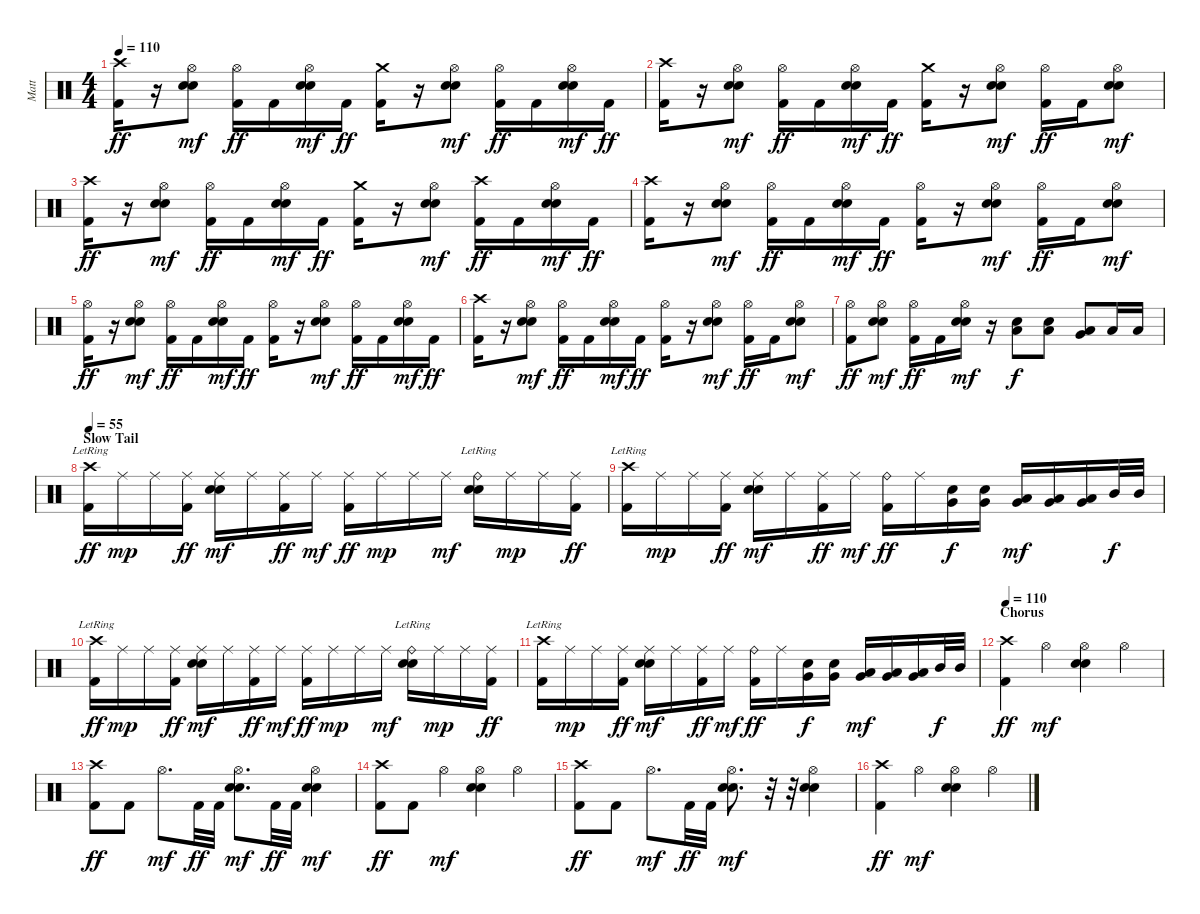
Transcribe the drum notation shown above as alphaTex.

\track ("Matt" "Matt") {instrument percussion}
\staff {score}
\articulation defaults
\ts (4 4)
\tempo 110
\clef neutral
\ks c
("Crash high (hit)" "Kick (hit) 2").16{dy ff} r.16 ("Hi-Hat (open)" "Electric Snare (hit)" "Snare (hit) 2").8{dy mf} ("Hi-Hat (open)" "Kick (hit) 2").16{dy ff} "Kick (hit) 2".16 ("Hi-Hat (open)" "Electric Snare (hit)" "Snare (hit) 2").16{dy mf} "Kick (hit) 2".16{dy ff} ("Crash medium (hit)" "Kick (hit) 2").16 r.16 ("Hi-Hat (open)" "Electric Snare (hit)" "Snare (hit) 2").8{dy mf} ("Hi-Hat (open)" "Kick (hit) 2").16{dy ff} "Kick (hit) 2".16 ("Hi-Hat (open)" "Electric Snare (hit)" "Snare (hit) 2").16{dy mf} "Kick (hit) 2".16{dy ff} |
("Crash high (hit)" "Kick (hit) 2").16 r.16 ("Hi-Hat (open)" "Electric Snare (hit)" "Snare (hit) 2").8{dy mf} ("Hi-Hat (open)" "Kick (hit) 2").16{dy ff} "Kick (hit) 2".16 ("Hi-Hat (open)" "Electric Snare (hit)" "Snare (hit) 2").16{dy mf} "Kick (hit) 2".16{dy ff} ("Crash medium (hit)" "Kick (hit) 2").16 r.16 ("Hi-Hat (open)" "Electric Snare (hit)" "Snare (hit) 2").8{dy mf} ("Hi-Hat (open)" "Kick (hit) 2").16{dy ff} "Kick (hit) 2".16 ("Hi-Hat (open)" "Electric Snare (hit)" "Snare (hit) 2").8{dy mf} |
("Crash high (hit)" "Kick (hit) 2").16{dy ff} r.16 ("Hi-Hat (open)" "Electric Snare (hit)" "Snare (hit) 2").8{dy mf} ("Hi-Hat (open)" "Kick (hit) 2").16{dy ff} "Kick (hit) 2".16 ("Hi-Hat (open)" "Electric Snare (hit)" "Snare (hit) 2").16{dy mf} "Kick (hit) 2".16{dy ff} ("Crash medium (hit)" "Kick (hit) 2").16 r.16 ("Hi-Hat (open)" "Electric Snare (hit)" "Snare (hit) 2").8{dy mf} ("Crash high (hit)" "Kick (hit) 2").16{dy ff} "Kick (hit) 2".16 ("Hi-Hat (open)" "Electric Snare (hit)" "Snare (hit) 2").16{dy mf} "Kick (hit) 2".16{dy ff} |
("Crash high (hit)" "Kick (hit) 2").16 r.16 ("Hi-Hat (open)" "Electric Snare (hit)" "Snare (hit) 2").8{dy mf} ("Hi-Hat (open)" "Kick (hit) 2").16{dy ff} "Kick (hit) 2".16 ("Hi-Hat (open)" "Electric Snare (hit)" "Snare (hit) 2").16{dy mf} "Kick (hit) 2".16{dy ff} ("Hi-Hat (open)" "Kick (hit) 2").16 r.16 ("Hi-Hat (open)" "Electric Snare (hit)" "Snare (hit) 2").8{dy mf} ("Hi-Hat (open)" "Kick (hit) 2").16{dy ff} "Kick (hit) 2".16 ("Hi-Hat (open)" "Electric Snare (hit)" "Snare (hit) 2").8{dy mf} |
("Hi-Hat (open)" "Kick (hit) 2").16{dy ff} r.16 ("Hi-Hat (open)" "Electric Snare (hit)" "Snare (hit) 2").8{dy mf} ("Hi-Hat (open)" "Kick (hit) 2").16{dy ff} "Kick (hit) 2".16 ("Hi-Hat (open)" "Electric Snare (hit)" "Snare (hit) 2").16{dy mf} "Kick (hit) 2".16{dy ff} ("Hi-Hat (open)" "Kick (hit) 2").16 r.16 ("Hi-Hat (open)" "Electric Snare (hit)" "Snare (hit) 2").8{dy mf} ("Hi-Hat (open)" "Kick (hit) 2").16{dy ff} "Kick (hit) 2".16 ("Hi-Hat (open)" "Electric Snare (hit)" "Snare (hit) 2").16{dy mf} "Kick (hit) 2".16{dy ff} |
("Crash high (hit)" "Kick (hit) 2").16 r.16 ("Hi-Hat (open)" "Electric Snare (hit)" "Snare (hit) 2").8{dy mf} ("Hi-Hat (open)" "Kick (hit) 2").16{dy ff} "Kick (hit) 2".16 ("Hi-Hat (open)" "Electric Snare (hit)" "Snare (hit) 2").16{dy mf} "Kick (hit) 2".16{dy ff} ("Hi-Hat (open)" "Kick (hit) 2").16 r.16 ("Hi-Hat (open)" "Electric Snare (hit)" "Snare (hit) 2").8{dy mf} ("Hi-Hat (open)" "Kick (hit) 2").16{dy ff} "Kick (hit) 2".16 ("Hi-Hat (open)" "Electric Snare (hit)" "Snare (hit) 2").8{dy mf} |
("Hi-Hat (open)" "Kick (hit) 2").8{dy ff} ("Hi-Hat (open)" "Electric Snare (hit)" "Snare (hit) 2").8{dy mf} ("Hi-Hat (open)" "Kick (hit) 2").16{dy ff} "Kick (hit) 2".16 ("Hi-Hat (open)" "Electric Snare (hit)" "Snare (hit) 2").16{dy mf} r.16 ("Low Floor Tom (hit)" "Snare (hit) 2").8{dy f} ("Low Floor Tom (hit)" "Snare (hit) 2").8 ("Low Tom (hit)" "Very Low Tom (hit)").8 "Low Tom (hit)".16 "Low Tom (hit)".16 |
\section ("" "Slow Tail")
\tempo 55
("Crash high (hit)"{lr} "Kick (hit) 2").16{dy ff} "Ride (middle)".16{dy mp} "Ride (middle)".16 ("Ride (middle)" "Kick (hit) 2").16{dy ff} ("Ride (middle)" "Electric Snare (hit)" "Snare (hit) 2").16{dy mf} "Ride (middle)".16 ("Ride (middle)" "Kick (hit) 2").16{dy ff} "Ride (middle)".16{dy mf} ("Ride (middle)" "Kick (hit) 2").16{dy ff} "Ride (middle)".16{dy mp} "Ride (middle)".16 "Ride (middle)".16{dy mf} ("Ride (bell)"{lr} "Electric Snare (hit)" "Snare (hit) 2").16 "Ride (middle)".16{dy mp} "Ride (middle)".16 ("Ride (middle)" "Kick (hit) 2").16{dy ff} |
("Crash high (hit)"{lr} "Kick (hit) 2").16 "Ride (middle)".16{dy mp} "Ride (middle)".16 ("Ride (middle)" "Kick (hit) 2").16{dy ff} ("Ride (middle)" "Electric Snare (hit)" "Snare (hit) 2").16{dy mf} "Ride (middle)".16 ("Ride (middle)" "Kick (hit) 2").16{dy ff} "Ride (middle)".16{dy mf} ("Ride (bell)" "Kick (hit) 2").16{dy ff} "Ride (middle)".16 ("Very Low Tom (hit)" "Snare (hit) 2").16{dy f} ("Very Low Tom (hit)" "Snare (hit) 2").16 ("Low Floor Tom (hit)" "Very Low Tom (hit)").16{dy mf} ("Low Floor Tom (hit)" "Very Low Tom (hit)").16 ("Low Floor Tom (hit)" "Very Low Tom (hit)").16 "Mid Tom (hit)".32{dy f} "Mid Tom (hit)".32 |
("Crash high (hit)"{lr} "Kick (hit) 2").16{dy ff} "Ride (middle)".16{dy mp} "Ride (middle)".16 ("Ride (middle)" "Kick (hit) 2").16{dy ff} ("Ride (middle)" "Electric Snare (hit)" "Snare (hit) 2").16{dy mf} "Ride (middle)".16 ("Ride (middle)" "Kick (hit) 2").16{dy ff} "Ride (middle)".16{dy mf} ("Ride (middle)" "Kick (hit) 2").16{dy ff} "Ride (middle)".16{dy mp} "Ride (middle)".16 "Ride (middle)".16{dy mf} ("Ride (bell)"{lr} "Electric Snare (hit)" "Snare (hit) 2").16 "Ride (middle)".16{dy mp} "Ride (middle)".16 ("Ride (middle)" "Kick (hit) 2").16{dy ff} |
("Crash high (hit)"{lr} "Kick (hit) 2").16 "Ride (middle)".16{dy mp} "Ride (middle)".16 ("Ride (middle)" "Kick (hit) 2").16{dy ff} ("Ride (middle)" "Electric Snare (hit)" "Snare (hit) 2").16{dy mf} "Ride (middle)".16 ("Ride (middle)" "Kick (hit) 2").16{dy ff} "Ride (middle)".16{dy mf} ("Ride (bell)" "Kick (hit) 2").16{dy ff} "Ride (middle)".16 ("Very Low Tom (hit)" "Snare (hit) 2").16{dy f} ("Very Low Tom (hit)" "Snare (hit) 2").16 ("Low Floor Tom (hit)" "Very Low Tom (hit)").16{dy mf} ("Low Floor Tom (hit)" "Very Low Tom (hit)").16 ("Low Floor Tom (hit)" "Very Low Tom (hit)").16 "Mid Tom (hit)".32{dy f} "Mid Tom (hit)".32 |
\section ("" "Chorus")
\tempo 110
("Crash high (hit)" "Kick (hit) 2").4{dy ff} "Hi-Hat (open)".4{dy mf} ("Hi-Hat (open)" "Electric Snare (hit)" "Snare (hit) 2").4 "Hi-Hat (open)".4 |
("Crash high (hit)" "Kick (hit) 2").8{dy ff} "Kick (hit) 2".8 "Hi-Hat (open)".8{d dy mf} "Kick (hit) 2".32{dy ff} "Kick (hit) 2".32 ("Hi-Hat (open)" "Electric Snare (hit)" "Snare (hit) 2").8{d dy mf} "Kick (hit) 2".32{dy ff} "Kick (hit) 2".32 ("Hi-Hat (open)" "Electric Snare (hit)" "Snare (hit) 2").4{dy mf} |
("Crash high (hit)" "Kick (hit) 2").8{dy ff} "Kick (hit) 2".8 "Hi-Hat (open)".4{dy mf} ("Hi-Hat (open)" "Electric Snare (hit)" "Snare (hit) 2").4 "Hi-Hat (open)".4 |
("Crash high (hit)" "Kick (hit) 2").8{dy ff} "Kick (hit) 2".8 "Hi-Hat (open)".8{d dy mf} "Kick (hit) 2".32{dy ff} "Kick (hit) 2".32 ("Hi-Hat (open)" "Electric Snare (hit)" "Snare (hit) 2").8{d dy mf} r.32 r.32 ("Hi-Hat (open)" "Electric Snare (hit)" "Snare (hit) 2").4 |
("Crash high (hit)" "Kick (hit) 2").4{dy ff} "Hi-Hat (open)".4{dy mf} ("Hi-Hat (open)" "Electric Snare (hit)" "Snare (hit) 2").4 "Hi-Hat (open)".4
